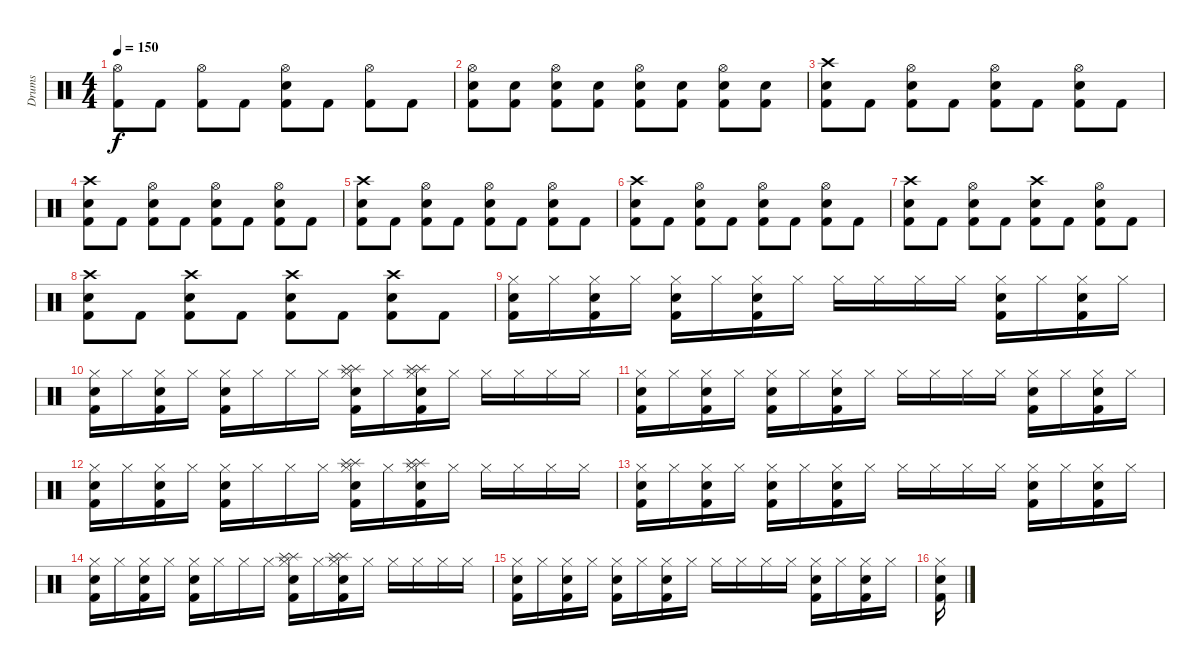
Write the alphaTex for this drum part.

\track ("Drums" "Drums") {instrument percussion}
\staff {score}
\articulation defaults
\ts (4 4)
\tempo 150
\clef neutral
\ks c
("Hi-Hat (open)" "Kick (hit) 2").8{dy f} "Kick (hit) 2".8 ("Hi-Hat (open)" "Kick (hit) 2").8 "Kick (hit) 2".8 ("Hi-Hat (open)" "Electric Snare (hit)" "Kick (hit) 2").8 "Kick (hit) 2".8 ("Hi-Hat (open)" "Kick (hit) 2").8 "Kick (hit) 2".8 |
("Hi-Hat (open)" "Electric Snare (hit)" "Kick (hit) 2").8 ("Electric Snare (hit)" "Kick (hit) 2").8 ("Hi-Hat (open)" "Electric Snare (hit)" "Kick (hit) 2").8 ("Electric Snare (hit)" "Kick (hit) 2").8 ("Hi-Hat (open)" "Electric Snare (hit)" "Kick (hit) 2").8 ("Electric Snare (hit)" "Kick (hit) 2").8 ("Hi-Hat (open)" "Electric Snare (hit)" "Kick (hit) 2").8 ("Electric Snare (hit)" "Kick (hit) 2").8 |
("Crash high (hit)" "Electric Snare (hit)" "Kick (hit) 2").8 "Kick (hit) 2".8 ("Hi-Hat (open)" "Electric Snare (hit)" "Kick (hit) 2").8 "Kick (hit) 2".8 ("Hi-Hat (open)" "Electric Snare (hit)" "Kick (hit) 2").8 "Kick (hit) 2".8 ("Hi-Hat (open)" "Electric Snare (hit)" "Kick (hit) 2").8 "Kick (hit) 2".8 |
("Crash high (hit)" "Electric Snare (hit)" "Kick (hit) 2").8 "Kick (hit) 2".8 ("Hi-Hat (open)" "Electric Snare (hit)" "Kick (hit) 2").8 "Kick (hit) 2".8 ("Hi-Hat (open)" "Electric Snare (hit)" "Kick (hit) 2").8 "Kick (hit) 2".8 ("Hi-Hat (open)" "Electric Snare (hit)" "Kick (hit) 2").8 "Kick (hit) 2".8 |
("Crash high (hit)" "Electric Snare (hit)" "Kick (hit) 2").8 "Kick (hit) 2".8 ("Hi-Hat (open)" "Electric Snare (hit)" "Kick (hit) 2").8 "Kick (hit) 2".8 ("Hi-Hat (open)" "Electric Snare (hit)" "Kick (hit) 2").8 "Kick (hit) 2".8 ("Hi-Hat (open)" "Electric Snare (hit)" "Kick (hit) 2").8 "Kick (hit) 2".8 |
("Crash high (hit)" "Electric Snare (hit)" "Kick (hit) 2").8 "Kick (hit) 2".8 ("Hi-Hat (open)" "Electric Snare (hit)" "Kick (hit) 2").8 "Kick (hit) 2".8 ("Hi-Hat (open)" "Electric Snare (hit)" "Kick (hit) 2").8 "Kick (hit) 2".8 ("Hi-Hat (open)" "Electric Snare (hit)" "Kick (hit) 2").8 "Kick (hit) 2".8 |
("Crash high (hit)" "Electric Snare (hit)" "Kick (hit) 2").8 "Kick (hit) 2".8 ("Hi-Hat (open)" "Electric Snare (hit)" "Kick (hit) 2").8 "Kick (hit) 2".8 ("Crash high (hit)" "Electric Snare (hit)" "Kick (hit) 2").8 "Kick (hit) 2".8 ("Hi-Hat (open)" "Electric Snare (hit)" "Kick (hit) 2").8 "Kick (hit) 2".8 |
("Crash high (hit)" "Electric Snare (hit)" "Kick (hit) 2").8 "Kick (hit) 2".8 ("Crash high (hit)" "Electric Snare (hit)" "Kick (hit) 2").8 "Kick (hit) 2".8 ("Crash high (hit)" "Electric Snare (hit)" "Kick (hit) 2").8 "Kick (hit) 2".8 ("Crash high (hit)" "Electric Snare (hit)" "Kick (hit) 2").8 "Kick (hit) 2".8 |
("Hi-Hat (closed)" "Electric Snare (hit)" "Kick (hit) 2").16 "Hi-Hat (closed)".16 ("Hi-Hat (closed)" "Electric Snare (hit)" "Kick (hit) 2").16 "Hi-Hat (closed)".16 ("Hi-Hat (closed)" "Electric Snare (hit)" "Kick (hit) 2").16 "Hi-Hat (closed)".16 ("Hi-Hat (closed)" "Electric Snare (hit)" "Kick (hit) 2").16 "Hi-Hat (closed)".16 "Hi-Hat (closed)".16 "Hi-Hat (closed)".16 "Hi-Hat (closed)".16 "Hi-Hat (closed)".16 ("Hi-Hat (closed)" "Electric Snare (hit)" "Kick (hit) 2").16 "Hi-Hat (closed)".16 ("Hi-Hat (closed)" "Electric Snare (hit)" "Kick (hit) 2").16 "Hi-Hat (closed)".16 |
("Hi-Hat (closed)" "Electric Snare (hit)" "Kick (hit) 2").16 "Hi-Hat (closed)".16 ("Hi-Hat (closed)" "Electric Snare (hit)" "Kick (hit) 2").16 "Hi-Hat (closed)".16 ("Hi-Hat (closed)" "Electric Snare (hit)" "Kick (hit) 2").16 "Hi-Hat (closed)".16 "Hi-Hat (closed)".16 "Hi-Hat (closed)".16 ("Hi-Hat (closed)" "Splash (hit)" "Splash (hit)" "Electric Snare (hit)" "Kick (hit) 2").16 "Hi-Hat (closed)".16 ("Hi-Hat (closed)" "Splash (hit)" "Splash (hit)" "Electric Snare (hit)" "Kick (hit) 2").16 "Hi-Hat (closed)".16 "Hi-Hat (closed)".16 "Hi-Hat (closed)".16 "Hi-Hat (closed)".16 "Hi-Hat (closed)".16 |
("Hi-Hat (closed)" "Electric Snare (hit)" "Kick (hit) 2").16 "Hi-Hat (closed)".16 ("Hi-Hat (closed)" "Electric Snare (hit)" "Kick (hit) 2").16 "Hi-Hat (closed)".16 ("Hi-Hat (closed)" "Electric Snare (hit)" "Kick (hit) 2").16 "Hi-Hat (closed)".16 ("Hi-Hat (closed)" "Electric Snare (hit)" "Kick (hit) 2").16 "Hi-Hat (closed)".16 "Hi-Hat (closed)".16 "Hi-Hat (closed)".16 "Hi-Hat (closed)".16 "Hi-Hat (closed)".16 ("Hi-Hat (closed)" "Electric Snare (hit)" "Kick (hit) 2").16 "Hi-Hat (closed)".16 ("Hi-Hat (closed)" "Electric Snare (hit)" "Kick (hit) 2").16 "Hi-Hat (closed)".16 |
("Hi-Hat (closed)" "Electric Snare (hit)" "Kick (hit) 2").16 "Hi-Hat (closed)".16 ("Hi-Hat (closed)" "Electric Snare (hit)" "Kick (hit) 2").16 "Hi-Hat (closed)".16 ("Hi-Hat (closed)" "Electric Snare (hit)" "Kick (hit) 2").16 "Hi-Hat (closed)".16 "Hi-Hat (closed)".16 "Hi-Hat (closed)".16 ("Hi-Hat (closed)" "Splash (hit)" "Splash (hit)" "Electric Snare (hit)" "Kick (hit) 2").16 "Hi-Hat (closed)".16 ("Hi-Hat (closed)" "Splash (hit)" "Splash (hit)" "Electric Snare (hit)" "Kick (hit) 2").16 "Hi-Hat (closed)".16 "Hi-Hat (closed)".16 "Hi-Hat (closed)".16 "Hi-Hat (closed)".16 "Hi-Hat (closed)".16 |
("Hi-Hat (closed)" "Electric Snare (hit)" "Kick (hit) 2").16 "Hi-Hat (closed)".16 ("Hi-Hat (closed)" "Electric Snare (hit)" "Kick (hit) 2").16 "Hi-Hat (closed)".16 ("Hi-Hat (closed)" "Electric Snare (hit)" "Kick (hit) 2").16 "Hi-Hat (closed)".16 ("Hi-Hat (closed)" "Electric Snare (hit)" "Kick (hit) 2").16 "Hi-Hat (closed)".16 "Hi-Hat (closed)".16 "Hi-Hat (closed)".16 "Hi-Hat (closed)".16 "Hi-Hat (closed)".16 ("Hi-Hat (closed)" "Electric Snare (hit)" "Kick (hit) 2").16 "Hi-Hat (closed)".16 ("Hi-Hat (closed)" "Electric Snare (hit)" "Kick (hit) 2").16 "Hi-Hat (closed)".16 |
("Hi-Hat (closed)" "Electric Snare (hit)" "Kick (hit) 2").16 "Hi-Hat (closed)".16 ("Hi-Hat (closed)" "Electric Snare (hit)" "Kick (hit) 2").16 "Hi-Hat (closed)".16 ("Hi-Hat (closed)" "Electric Snare (hit)" "Kick (hit) 2").16 "Hi-Hat (closed)".16 "Hi-Hat (closed)".16 "Hi-Hat (closed)".16 ("Hi-Hat (closed)" "Splash (hit)" "Splash (hit)" "Electric Snare (hit)" "Kick (hit) 2").16 "Hi-Hat (closed)".16 ("Hi-Hat (closed)" "Splash (hit)" "Splash (hit)" "Electric Snare (hit)" "Kick (hit) 2").16 "Hi-Hat (closed)".16 "Hi-Hat (closed)".16 "Hi-Hat (closed)".16 "Hi-Hat (closed)".16 "Hi-Hat (closed)".16 |
("Hi-Hat (closed)" "Electric Snare (hit)" "Kick (hit) 2").16 "Hi-Hat (closed)".16 ("Hi-Hat (closed)" "Electric Snare (hit)" "Kick (hit) 2").16 "Hi-Hat (closed)".16 ("Hi-Hat (closed)" "Electric Snare (hit)" "Kick (hit) 2").16 "Hi-Hat (closed)".16 ("Hi-Hat (closed)" "Electric Snare (hit)" "Kick (hit) 2").16 "Hi-Hat (closed)".16 "Hi-Hat (closed)".16 "Hi-Hat (closed)".16 "Hi-Hat (closed)".16 "Hi-Hat (closed)".16 ("Hi-Hat (closed)" "Electric Snare (hit)" "Kick (hit) 2").16 "Hi-Hat (closed)".16 ("Hi-Hat (closed)" "Electric Snare (hit)" "Kick (hit) 2").16 "Hi-Hat (closed)".16 |
("Hi-Hat (closed)" "Electric Snare (hit)" "Kick (hit) 2").16
